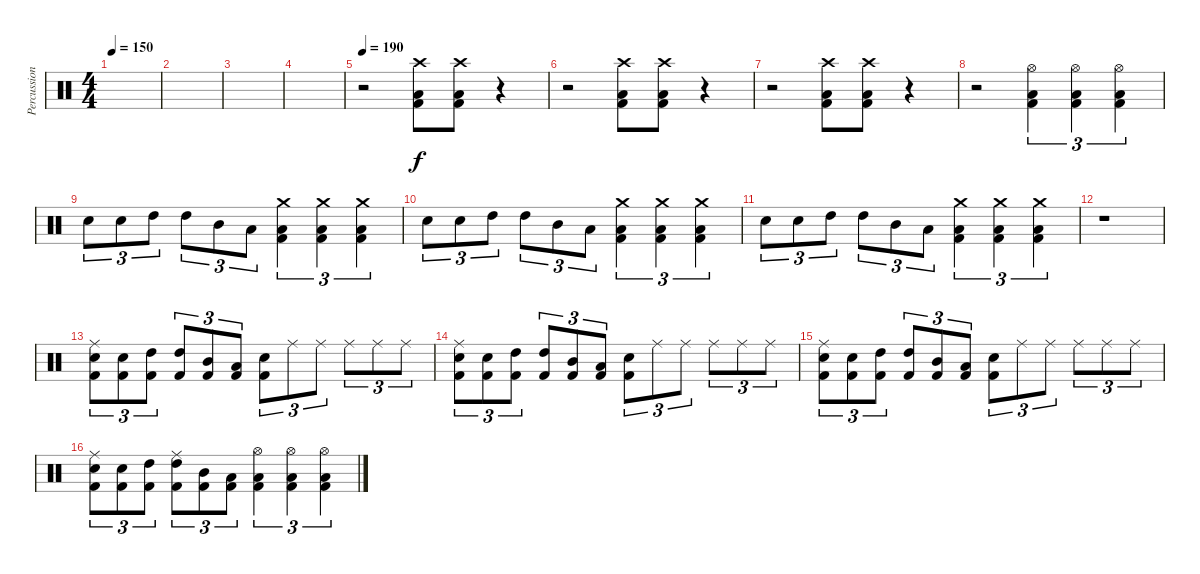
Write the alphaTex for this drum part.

\track ("Percussions" "Percussion") {instrument percussion}
\staff {score}
\articulation defaults
\ts (4 4)
\tempo 150
\clef neutral
\ks c
|
|
|
|
\tempo 190
r.2 ("Crash high (hit)" "Low Floor Tom (hit)" "Kick (hit) 2").8 ("Crash high (hit)" "Low Floor Tom (hit)" "Kick (hit) 2").8 r.4 |
r.2 ("Crash high (hit)" "Low Floor Tom (hit)" "Kick (hit) 2").8 ("Crash high (hit)" "Low Floor Tom (hit)" "Kick (hit) 2").8 r.4 |
r.2 ("Crash high (hit)" "Low Floor Tom (hit)" "Kick (hit) 2").8 ("Crash high (hit)" "Low Floor Tom (hit)" "Kick (hit) 2").8 r.4 |
r.2 ("Hi-Hat (open)" "Low Floor Tom (hit)" "Kick (hit) 2").4{tu (3 2)} ("Hi-Hat (open)" "Low Floor Tom (hit)" "Kick (hit) 2").4{tu (3 2)} ("Hi-Hat (open)" "Low Floor Tom (hit)" "Kick (hit) 2").4{tu (3 2)} |
"Snare (hit) 2".8{tu (3 2)} "Snare (hit) 2".8{tu (3 2)} "High Tom (hit)".8{tu (3 2)} "High Tom (hit)".8{tu (3 2)} "Mid Tom (hit)".8{tu (3 2)} "Low Tom (hit)".8{tu (3 2)} ("Crash medium (hit)" "Low Floor Tom (hit)" "Kick (hit) 2").4{tu (3 2)} ("Crash medium (hit)" "Low Floor Tom (hit)" "Kick (hit) 2").4{tu (3 2)} ("Crash medium (hit)" "Low Floor Tom (hit)" "Kick (hit) 2").4{tu (3 2)} |
"Snare (hit) 2".8{tu (3 2)} "Snare (hit) 2".8{tu (3 2)} "High Tom (hit)".8{tu (3 2)} "High Tom (hit)".8{tu (3 2)} "Mid Tom (hit)".8{tu (3 2)} "Low Tom (hit)".8{tu (3 2)} ("Crash medium (hit)" "Low Floor Tom (hit)" "Kick (hit) 2").4{tu (3 2)} ("Crash medium (hit)" "Low Floor Tom (hit)" "Kick (hit) 2").4{tu (3 2)} ("Crash medium (hit)" "Low Floor Tom (hit)" "Kick (hit) 2").4{tu (3 2)} |
"Snare (hit) 2".8{tu (3 2)} "Snare (hit) 2".8{tu (3 2)} "High Tom (hit)".8{tu (3 2)} "High Tom (hit)".8{tu (3 2)} "Mid Tom (hit)".8{tu (3 2)} "Low Tom (hit)".8{tu (3 2)} ("Crash medium (hit)" "Low Floor Tom (hit)" "Kick (hit) 2").4{tu (3 2)} ("Crash medium (hit)" "Low Floor Tom (hit)" "Kick (hit) 2").4{tu (3 2)} ("Crash medium (hit)" "Low Floor Tom (hit)" "Kick (hit) 2").4{tu (3 2)} |
r.1 |
("Ride (middle)" "Snare (hit) 2" "Kick (hit) 2").8{tu (3 2)} ("Snare (hit) 2" "Kick (hit) 2").8{tu (3 2)} ("High Tom (hit)" "Kick (hit) 2").8{tu (3 2)} ("High Tom (hit)" "Kick (hit) 2").8{tu (3 2)} ("Mid Tom (hit)" "Kick (hit) 2").8{tu (3 2)} ("Low Tom (hit)" "Kick (hit) 2").8{tu (3 2)} ("Snare (hit) 2" "Kick (hit) 2").8{tu (3 2)} "Ride (middle)".8{tu (3 2)} "Ride (middle)".8{tu (3 2)} "Ride (middle)".8{tu (3 2)} "Ride (middle)".8{tu (3 2)} "Ride (middle)".8{tu (3 2)} |
("Ride (middle)" "Snare (hit) 2" "Kick (hit) 2").8{tu (3 2)} ("Snare (hit) 2" "Kick (hit) 2").8{tu (3 2)} ("High Tom (hit)" "Kick (hit) 2").8{tu (3 2)} ("High Tom (hit)" "Kick (hit) 2").8{tu (3 2)} ("Mid Tom (hit)" "Kick (hit) 2").8{tu (3 2)} ("Low Tom (hit)" "Kick (hit) 2").8{tu (3 2)} ("Snare (hit) 2" "Kick (hit) 2").8{tu (3 2)} "Ride (middle)".8{tu (3 2)} "Ride (middle)".8{tu (3 2)} "Ride (middle)".8{tu (3 2)} "Ride (middle)".8{tu (3 2)} "Ride (middle)".8{tu (3 2)} |
("Ride (middle)" "Snare (hit) 2" "Kick (hit) 2").8{tu (3 2)} ("Snare (hit) 2" "Kick (hit) 2").8{tu (3 2)} ("High Tom (hit)" "Kick (hit) 2").8{tu (3 2)} ("High Tom (hit)" "Kick (hit) 2").8{tu (3 2)} ("Mid Tom (hit)" "Kick (hit) 2").8{tu (3 2)} ("Low Tom (hit)" "Kick (hit) 2").8{tu (3 2)} ("Snare (hit) 2" "Kick (hit) 2").8{tu (3 2)} "Ride (middle)".8{tu (3 2)} "Ride (middle)".8{tu (3 2)} "Ride (middle)".8{tu (3 2)} "Ride (middle)".8{tu (3 2)} "Ride (middle)".8{tu (3 2)} |
("Ride (middle)" "Snare (hit) 2" "Kick (hit) 2").8{tu (3 2)} ("Snare (hit) 2" "Kick (hit) 2").8{tu (3 2)} ("High Tom (hit)" "Kick (hit) 2").8{tu (3 2)} ("Ride (middle)" "High Tom (hit)" "Kick (hit) 2").8{tu (3 2)} ("Mid Tom (hit)" "Kick (hit) 2").8{tu (3 2)} ("Low Tom (hit)" "Kick (hit) 2").8{tu (3 2)} ("Hi-Hat (open)" "Low Floor Tom (hit)" "Kick (hit) 2").4{tu (3 2)} ("Hi-Hat (open)" "Low Floor Tom (hit)" "Kick (hit) 2").4{tu (3 2)} ("Hi-Hat (open)" "Low Floor Tom (hit)" "Kick (hit) 2").4{tu (3 2)}
